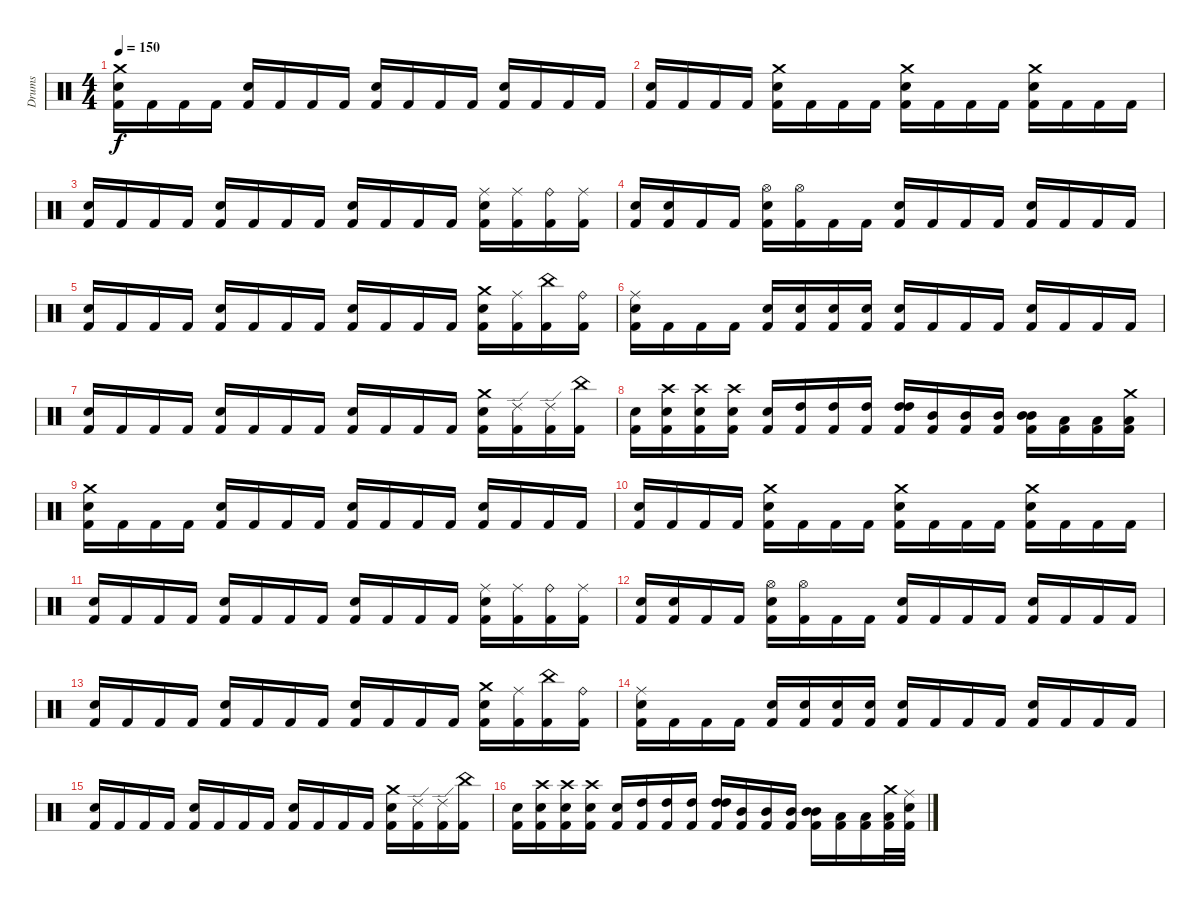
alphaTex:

\track ("Drums" "Drums") {instrument percussion}
\staff {score}
\articulation defaults
\ts (4 4)
\tempo 150
\clef neutral
\ks c
("Crash medium (hit)" "Electric Snare (hit)" "Kick (hit) 2").16{dy f} "Kick (hit) 2".16 "Kick (hit) 2".16 "Kick (hit) 2".16 ("Electric Snare (hit)" "Kick (hit) 2").16 "Kick (hit) 2".16 "Kick (hit) 2".16 "Kick (hit) 2".16 ("Electric Snare (hit)" "Kick (hit) 2").16 "Kick (hit) 2".16 "Kick (hit) 2".16 "Kick (hit) 2".16 ("Electric Snare (hit)" "Kick (hit) 2").16 "Kick (hit) 2".16 "Kick (hit) 2".16 "Kick (hit) 2".16 |
("Electric Snare (hit)" "Kick (hit) 2").16 "Kick (hit) 2".16 "Kick (hit) 2".16 "Kick (hit) 2".16 ("Crash medium (hit)" "Electric Snare (hit)" "Kick (hit) 2").16 "Kick (hit) 2".16 "Kick (hit) 2".16 "Kick (hit) 2".16 ("Crash medium (hit)" "Electric Snare (hit)" "Kick (hit) 2").16 "Kick (hit) 2".16 "Kick (hit) 2".16 "Kick (hit) 2".16 ("Crash medium (hit)" "Electric Snare (hit)" "Kick (hit) 2").16 "Kick (hit) 2".16 "Kick (hit) 2".16 "Kick (hit) 2".16 |
("Electric Snare (hit)" "Kick (hit) 2").16 "Kick (hit) 2".16 "Kick (hit) 2".16 "Kick (hit) 2".16 ("Electric Snare (hit)" "Kick (hit) 2").16 "Kick (hit) 2".16 "Kick (hit) 2".16 "Kick (hit) 2".16 ("Electric Snare (hit)" "Kick (hit) 2").16 "Kick (hit) 2".16 "Kick (hit) 2".16 "Kick (hit) 2".16 ("Ride (middle)" "Electric Snare (hit)" "Kick (hit) 2").16 ("Ride (middle)" "Kick (hit) 2").16 ("Ride (bell)" "Kick (hit) 2").16 ("Ride (middle)" "Kick (hit) 2").16 |
("Electric Snare (hit)" "Kick (hit) 2").16 ("Electric Snare (hit)" "Kick (hit) 2").16 "Kick (hit) 2".16 "Kick (hit) 2".16 ("Hi-Hat (open)" "Electric Snare (hit)" "Kick (hit) 2").16 ("Hi-Hat (open)" "Kick (hit) 2").16 "Kick (hit) 2".16 "Kick (hit) 2".16 ("Electric Snare (hit)" "Kick (hit) 2").16 "Kick (hit) 2".16 "Kick (hit) 2".16 "Kick (hit) 2".16 ("Electric Snare (hit)" "Kick (hit) 2").16 "Kick (hit) 2".16 "Kick (hit) 2".16 "Kick (hit) 2".16 |
("Electric Snare (hit)" "Kick (hit) 2").16 "Kick (hit) 2".16 "Kick (hit) 2".16 "Kick (hit) 2".16 ("Electric Snare (hit)" "Kick (hit) 2").16 "Kick (hit) 2".16 "Kick (hit) 2".16 "Kick (hit) 2".16 ("Electric Snare (hit)" "Kick (hit) 2").16 "Kick (hit) 2".16 "Kick (hit) 2".16 "Kick (hit) 2".16 ("Crash medium (hit)" "Electric Snare (hit)" "Kick (hit) 2").16 ("Ride (middle)" "Kick (hit) 2").16 ("China (hit)" "Kick (hit) 2").16 ("Ride (bell)" "Kick (hit) 2").16 |
("Ride (middle)" "Electric Snare (hit)" "Kick (hit) 2").16 "Kick (hit) 2".16 "Kick (hit) 2".16 "Kick (hit) 2".16 ("Electric Snare (hit)" "Kick (hit) 2").16 ("Electric Snare (hit)" "Kick (hit) 2").16 ("Electric Snare (hit)" "Kick (hit) 2").16 ("Electric Snare (hit)" "Kick (hit) 2").16 ("Electric Snare (hit)" "Kick (hit) 2").16 "Kick (hit) 2".16 "Kick (hit) 2".16 "Kick (hit) 2".16 ("Electric Snare (hit)" "Kick (hit) 2").16 "Kick (hit) 2".16 "Kick (hit) 2".16 "Kick (hit) 2".16 |
("Electric Snare (hit)" "Kick (hit) 2").16 "Kick (hit) 2".16 "Kick (hit) 2".16 "Kick (hit) 2".16 ("Electric Snare (hit)" "Kick (hit) 2").16 "Kick (hit) 2".16 "Kick (hit) 2".16 "Kick (hit) 2".16 ("Electric Snare (hit)" "Kick (hit) 2").16 "Kick (hit) 2".16 "Kick (hit) 2".16 "Kick (hit) 2".16 ("Crash medium (hit)" "Electric Snare (hit)" "Kick (hit) 2").16 ("Ride (edge) 2" "Kick (hit) 2").16 ("Ride (edge) 2" "Kick (hit) 2").16 ("China (hit)" "Kick (hit) 2").16 |
("Electric Snare (hit)" "Kick (hit) 2").16 ("Electric Snare (hit)" "Crash high (hit)" "Kick (hit) 2").16 ("Electric Snare (hit)" "Crash high (hit)" "Kick (hit) 2").16 ("Crash high (hit)" "Electric Snare (hit)" "Kick (hit) 2").16 ("Electric Snare (hit)" "Kick (hit) 2").16 ("High Tom (hit)" "Kick (hit) 2").16 ("High Tom (hit)" "Kick (hit) 2").16 ("High Tom (hit)" "Kick (hit) 2").16 ("High Tom (hit)" "High Tom (hit)" "Kick (hit) 2").16 ("Mid Tom (hit)" "Kick (hit) 2").16 ("Mid Tom (hit)" "Kick (hit) 2").16 ("Mid Tom (hit)" "Kick (hit) 2").16 ("Mid Tom (hit)" "Mid Tom (hit)" "Kick (hit) 2").16 ("Low Tom (hit)" "Kick (hit) 2").16 ("Low Tom (hit)" "Kick (hit) 2").16 ("Crash medium (hit)" "Low Tom (hit)" "Kick (hit) 2").16 |
("Crash medium (hit)" "Electric Snare (hit)" "Kick (hit) 2").16 "Kick (hit) 2".16 "Kick (hit) 2".16 "Kick (hit) 2".16 ("Electric Snare (hit)" "Kick (hit) 2").16 "Kick (hit) 2".16 "Kick (hit) 2".16 "Kick (hit) 2".16 ("Electric Snare (hit)" "Kick (hit) 2").16 "Kick (hit) 2".16 "Kick (hit) 2".16 "Kick (hit) 2".16 ("Electric Snare (hit)" "Kick (hit) 2").16 "Kick (hit) 2".16 "Kick (hit) 2".16 "Kick (hit) 2".16 |
("Electric Snare (hit)" "Kick (hit) 2").16 "Kick (hit) 2".16 "Kick (hit) 2".16 "Kick (hit) 2".16 ("Crash medium (hit)" "Electric Snare (hit)" "Kick (hit) 2").16 "Kick (hit) 2".16 "Kick (hit) 2".16 "Kick (hit) 2".16 ("Crash medium (hit)" "Electric Snare (hit)" "Kick (hit) 2").16 "Kick (hit) 2".16 "Kick (hit) 2".16 "Kick (hit) 2".16 ("Crash medium (hit)" "Electric Snare (hit)" "Kick (hit) 2").16 "Kick (hit) 2".16 "Kick (hit) 2".16 "Kick (hit) 2".16 |
("Electric Snare (hit)" "Kick (hit) 2").16 "Kick (hit) 2".16 "Kick (hit) 2".16 "Kick (hit) 2".16 ("Electric Snare (hit)" "Kick (hit) 2").16 "Kick (hit) 2".16 "Kick (hit) 2".16 "Kick (hit) 2".16 ("Electric Snare (hit)" "Kick (hit) 2").16 "Kick (hit) 2".16 "Kick (hit) 2".16 "Kick (hit) 2".16 ("Ride (middle)" "Electric Snare (hit)" "Kick (hit) 2").16 ("Ride (middle)" "Kick (hit) 2").16 ("Ride (bell)" "Kick (hit) 2").16 ("Ride (middle)" "Kick (hit) 2").16 |
("Electric Snare (hit)" "Kick (hit) 2").16 ("Electric Snare (hit)" "Kick (hit) 2").16 "Kick (hit) 2".16 "Kick (hit) 2".16 ("Hi-Hat (open)" "Electric Snare (hit)" "Kick (hit) 2").16 ("Hi-Hat (open)" "Kick (hit) 2").16 "Kick (hit) 2".16 "Kick (hit) 2".16 ("Electric Snare (hit)" "Kick (hit) 2").16 "Kick (hit) 2".16 "Kick (hit) 2".16 "Kick (hit) 2".16 ("Electric Snare (hit)" "Kick (hit) 2").16 "Kick (hit) 2".16 "Kick (hit) 2".16 "Kick (hit) 2".16 |
("Electric Snare (hit)" "Kick (hit) 2").16 "Kick (hit) 2".16 "Kick (hit) 2".16 "Kick (hit) 2".16 ("Electric Snare (hit)" "Kick (hit) 2").16 "Kick (hit) 2".16 "Kick (hit) 2".16 "Kick (hit) 2".16 ("Electric Snare (hit)" "Kick (hit) 2").16 "Kick (hit) 2".16 "Kick (hit) 2".16 "Kick (hit) 2".16 ("Crash medium (hit)" "Electric Snare (hit)" "Kick (hit) 2").16 ("Ride (middle)" "Kick (hit) 2").16 ("China (hit)" "Kick (hit) 2").16 ("Ride (bell)" "Kick (hit) 2").16 |
("Ride (middle)" "Electric Snare (hit)" "Kick (hit) 2").16 "Kick (hit) 2".16 "Kick (hit) 2".16 "Kick (hit) 2".16 ("Electric Snare (hit)" "Kick (hit) 2").16 ("Electric Snare (hit)" "Kick (hit) 2").16 ("Electric Snare (hit)" "Kick (hit) 2").16 ("Electric Snare (hit)" "Kick (hit) 2").16 ("Electric Snare (hit)" "Kick (hit) 2").16 "Kick (hit) 2".16 "Kick (hit) 2".16 "Kick (hit) 2".16 ("Electric Snare (hit)" "Kick (hit) 2").16 "Kick (hit) 2".16 "Kick (hit) 2".16 "Kick (hit) 2".16 |
("Electric Snare (hit)" "Kick (hit) 2").16 "Kick (hit) 2".16 "Kick (hit) 2".16 "Kick (hit) 2".16 ("Electric Snare (hit)" "Kick (hit) 2").16 "Kick (hit) 2".16 "Kick (hit) 2".16 "Kick (hit) 2".16 ("Electric Snare (hit)" "Kick (hit) 2").16 "Kick (hit) 2".16 "Kick (hit) 2".16 "Kick (hit) 2".16 ("Crash medium (hit)" "Electric Snare (hit)" "Kick (hit) 2").16 ("Ride (edge) 2" "Kick (hit) 2").16 ("Ride (edge) 2" "Kick (hit) 2").16 ("China (hit)" "Kick (hit) 2").16 |
("Electric Snare (hit)" "Kick (hit) 2").16 ("Electric Snare (hit)" "Crash high (hit)" "Kick (hit) 2").16 ("Electric Snare (hit)" "Crash high (hit)" "Kick (hit) 2").16 ("Crash high (hit)" "Electric Snare (hit)" "Kick (hit) 2").16 ("Electric Snare (hit)" "Kick (hit) 2").16 ("High Tom (hit)" "Kick (hit) 2").16 ("High Tom (hit)" "Kick (hit) 2").16 ("High Tom (hit)" "Kick (hit) 2").16 ("High Tom (hit)" "High Tom (hit)" "Kick (hit) 2").16 ("Mid Tom (hit)" "Kick (hit) 2").16 ("Mid Tom (hit)" "Kick (hit) 2").16 ("Mid Tom (hit)" "Kick (hit) 2").16 ("Mid Tom (hit)" "Mid Tom (hit)" "Kick (hit) 2").16 ("Low Tom (hit)" "Kick (hit) 2").16 ("Low Tom (hit)" "Kick (hit) 2").16 ("Crash medium (hit)" "Low Tom (hit)" "Kick (hit) 2").32 ("Ride (middle)" "Electric Snare (hit)" "Kick (hit) 2").32
